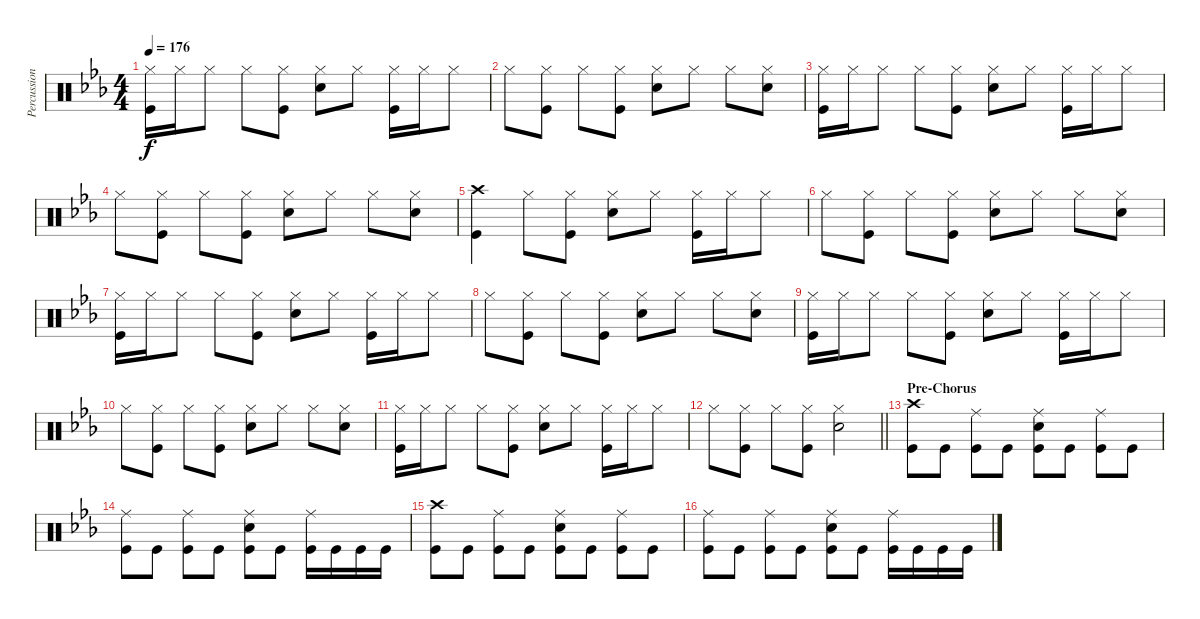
\track ("Percussion" "Percussion") {instrument percussion}
\staff {score}
\articulation defaults
\ts (4 4)
\tempo 176
\clef neutral
\ks eb
("Hi-Hat (closed)" "Kick (hit)").16{dy f} "Hi-Hat (closed)".16 "Hi-Hat (closed)".8 "Hi-Hat (closed)".8 ("Hi-Hat (closed)" "Kick (hit)").8 ("Hi-Hat (closed)" "Electric Snare (hit)").8 "Hi-Hat (closed)".8 ("Hi-Hat (closed)" "Kick (hit)").16 "Hi-Hat (closed)".16 "Hi-Hat (closed)".8 |
"Hi-Hat (closed)".8 ("Hi-Hat (closed)" "Kick (hit)").8 "Hi-Hat (closed)".8 ("Hi-Hat (closed)" "Kick (hit)").8 ("Hi-Hat (closed)" "Electric Snare (hit)").8 "Hi-Hat (closed)".8 "Hi-Hat (closed)".8 ("Hi-Hat (closed)" "Electric Snare (hit)").8 |
("Hi-Hat (closed)" "Kick (hit)").16 "Hi-Hat (closed)".16 "Hi-Hat (closed)".8 "Hi-Hat (closed)".8 ("Hi-Hat (closed)" "Kick (hit)").8 ("Hi-Hat (closed)" "Electric Snare (hit)").8 "Hi-Hat (closed)".8 ("Hi-Hat (closed)" "Kick (hit)").16 "Hi-Hat (closed)".16 "Hi-Hat (closed)".8 |
"Hi-Hat (closed)".8 ("Hi-Hat (closed)" "Kick (hit)").8 "Hi-Hat (closed)".8 ("Hi-Hat (closed)" "Kick (hit)").8 ("Hi-Hat (closed)" "Electric Snare (hit)").8 "Hi-Hat (closed)".8 "Hi-Hat (closed)".8 ("Hi-Hat (closed)" "Electric Snare (hit)").8 |
("Crash high (hit)" "Kick (hit)").4 "Hi-Hat (closed)".8 ("Hi-Hat (closed)" "Kick (hit)").8 ("Hi-Hat (closed)" "Electric Snare (hit)").8 "Hi-Hat (closed)".8 ("Hi-Hat (closed)" "Kick (hit)").16 "Hi-Hat (closed)".16 "Hi-Hat (closed)".8 |
"Hi-Hat (closed)".8 ("Hi-Hat (closed)" "Kick (hit)").8 "Hi-Hat (closed)".8 ("Hi-Hat (closed)" "Kick (hit)").8 ("Hi-Hat (closed)" "Electric Snare (hit)").8 "Hi-Hat (closed)".8 "Hi-Hat (closed)".8 ("Hi-Hat (closed)" "Electric Snare (hit)").8 |
("Hi-Hat (closed)" "Kick (hit)").16 "Hi-Hat (closed)".16 "Hi-Hat (closed)".8 "Hi-Hat (closed)".8 ("Hi-Hat (closed)" "Kick (hit)").8 ("Hi-Hat (closed)" "Electric Snare (hit)").8 "Hi-Hat (closed)".8 ("Hi-Hat (closed)" "Kick (hit)").16 "Hi-Hat (closed)".16 "Hi-Hat (closed)".8 |
"Hi-Hat (closed)".8 ("Hi-Hat (closed)" "Kick (hit)").8 "Hi-Hat (closed)".8 ("Hi-Hat (closed)" "Kick (hit)").8 ("Hi-Hat (closed)" "Electric Snare (hit)").8 "Hi-Hat (closed)".8 "Hi-Hat (closed)".8 ("Hi-Hat (closed)" "Electric Snare (hit)").8 |
("Hi-Hat (closed)" "Kick (hit)").16 "Hi-Hat (closed)".16 "Hi-Hat (closed)".8 "Hi-Hat (closed)".8 ("Hi-Hat (closed)" "Kick (hit)").8 ("Hi-Hat (closed)" "Electric Snare (hit)").8 "Hi-Hat (closed)".8 ("Hi-Hat (closed)" "Kick (hit)").16 "Hi-Hat (closed)".16 "Hi-Hat (closed)".8 |
"Hi-Hat (closed)".8 ("Hi-Hat (closed)" "Kick (hit)").8 "Hi-Hat (closed)".8 ("Hi-Hat (closed)" "Kick (hit)").8 ("Hi-Hat (closed)" "Electric Snare (hit)").8 "Hi-Hat (closed)".8 "Hi-Hat (closed)".8 ("Hi-Hat (closed)" "Electric Snare (hit)").8 |
("Hi-Hat (closed)" "Kick (hit)").16 "Hi-Hat (closed)".16 "Hi-Hat (closed)".8 "Hi-Hat (closed)".8 ("Hi-Hat (closed)" "Kick (hit)").8 ("Hi-Hat (closed)" "Electric Snare (hit)").8 "Hi-Hat (closed)".8 ("Hi-Hat (closed)" "Kick (hit)").16 "Hi-Hat (closed)".16 "Hi-Hat (closed)".8 |
\barLineRight lightlight "Hi-Hat (closed)".8
("Hi-Hat (closed)" "Kick (hit)").8 "Hi-Hat (closed)".8 ("Hi-Hat (closed)" "Kick (hit)").8 ("Hi-Hat (closed)" "Electric Snare (hit)").2 |
\section ("" "Pre-Chorus")
("Crash high (hit)" "Kick (hit)").8 "Kick (hit)".8 ("Ride (middle)" "Kick (hit)").8 "Kick (hit)".8 ("Ride (middle)" "Electric Snare (hit)" "Kick (hit)").8 "Kick (hit)".8 ("Ride (middle)" "Kick (hit)").8 "Kick (hit)".8 |
("Ride (middle)" "Kick (hit)").8 "Kick (hit)".8 ("Ride (middle)" "Kick (hit)").8 "Kick (hit)".8 ("Ride (middle)" "Electric Snare (hit)" "Kick (hit)").8 "Kick (hit)".8 ("Ride (middle)" "Kick (hit)").16 "Kick (hit)".16 "Kick (hit)".16 "Kick (hit)".16 |
("Crash high (hit)" "Kick (hit)").8 "Kick (hit)".8 ("Ride (middle)" "Kick (hit)").8 "Kick (hit)".8 ("Ride (middle)" "Electric Snare (hit)" "Kick (hit)").8 "Kick (hit)".8 ("Ride (middle)" "Kick (hit)").8 "Kick (hit)".8 |
("Ride (middle)" "Kick (hit)").8 "Kick (hit)".8 ("Ride (middle)" "Kick (hit)").8 "Kick (hit)".8 ("Ride (middle)" "Electric Snare (hit)" "Kick (hit)").8 "Kick (hit)".8 ("Ride (middle)" "Kick (hit)").16 "Kick (hit)".16 "Kick (hit)".16 "Kick (hit)".16
